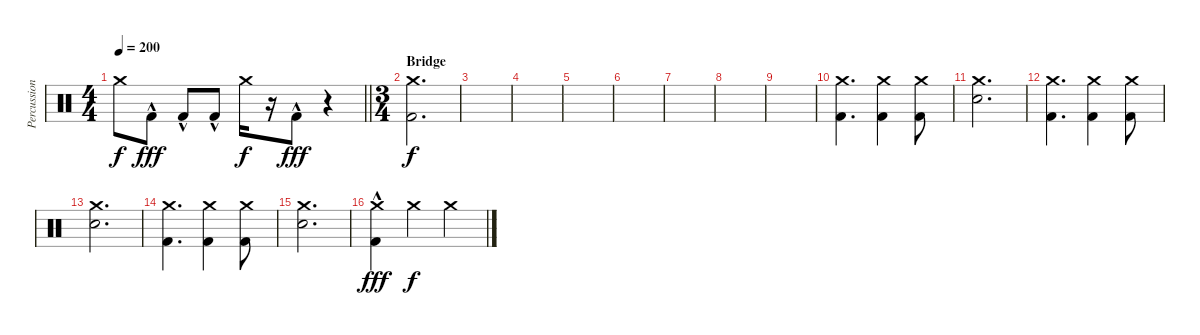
\track ("Percussion" "Percussion") {instrument percussion}
\staff {score}
\articulation defaults
\ts (4 4)
\tempo 200
\clef neutral
\barLineRight lightlight
\ks c "Crash medium (hit)".8{dy f} "Kick (hit) 2"{hac}.8{dy fff} "Kick (hit) 2"{hac}.8 "Kick (hit) 2"{hac}.8 "Crash medium (hit)".16{dy f}
r.16 "Kick (hit) 2"{hac}.8{dy fff} r.4 |
\ts (3 4)
\section ("" "Bridge")
("Crash medium (hit)" "Kick (hit) 2").2{d dy f} |
|
|
|
|
|
|
|
("Crash medium (hit)" "Kick (hit) 2").4{d} ("Crash medium (hit)" "Kick (hit) 2").4 ("Crash medium (hit)" "Kick (hit) 2").8 |
("Crash medium (hit)" "Snare (hit) 2").2{d} |
("Crash medium (hit)" "Kick (hit) 2").4{d} ("Crash medium (hit)" "Kick (hit) 2").4 ("Crash medium (hit)" "Kick (hit) 2").8 |
("Crash medium (hit)" "Snare (hit) 2").2{d} |
("Crash medium (hit)" "Kick (hit) 2").4{d} ("Crash medium (hit)" "Kick (hit) 2").4 ("Crash medium (hit)" "Kick (hit) 2").8 |
("Crash medium (hit)" "Snare (hit) 2").2{d} |
("Crash medium (hit)" "Kick (hit) 2"{hac}).4{dy fff} "Crash medium (hit)".4{dy f} "Crash medium (hit)".4
